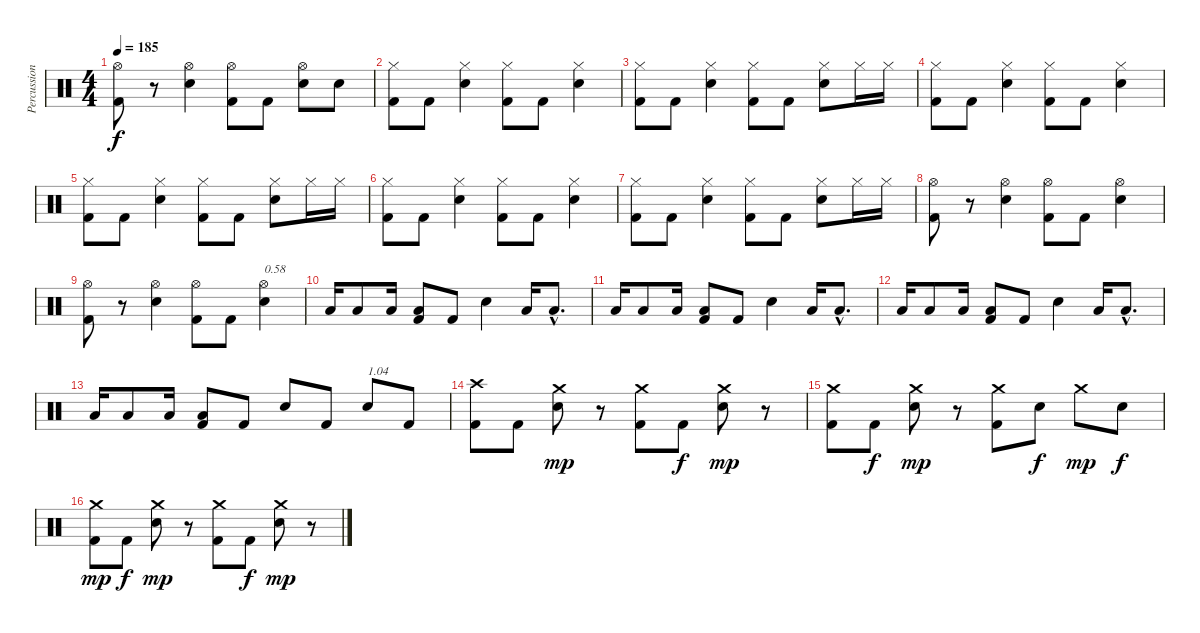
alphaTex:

\track ("Percussions" "Percussion") {instrument percussion}
\staff {score}
\articulation defaults
\ts (4 4)
\tempo 185
\clef neutral
\ks c
("Kick (hit) 2" "Hi-Hat (open)").8{dy f} r.8 ("Electric Snare (hit)" "Hi-Hat (open)").4 ("Kick (hit) 2" "Hi-Hat (open)").8 "Kick (hit) 2".8 ("Electric Snare (hit)" "Hi-Hat (open)").8 "Electric Snare (hit)".8 |
("Kick (hit) 2" "Hi-Hat (closed)").8 "Kick (hit) 2".8 ("Electric Snare (hit)" "Hi-Hat (closed)").4 ("Kick (hit) 2" "Hi-Hat (closed)").8 "Kick (hit) 2".8 ("Electric Snare (hit)" "Hi-Hat (closed)").4 |
("Kick (hit) 2" "Hi-Hat (closed)").8 "Kick (hit) 2".8 ("Electric Snare (hit)" "Hi-Hat (closed)").4 ("Kick (hit) 2" "Hi-Hat (closed)").8 "Kick (hit) 2".8 ("Electric Snare (hit)" "Hi-Hat (closed)").8 "Hi-Hat (closed)".16 "Hi-Hat (closed)".16 |
("Kick (hit) 2" "Hi-Hat (closed)").8 "Kick (hit) 2".8 ("Electric Snare (hit)" "Hi-Hat (closed)").4 ("Kick (hit) 2" "Hi-Hat (closed)").8 "Kick (hit) 2".8 ("Electric Snare (hit)" "Hi-Hat (closed)").4 |
("Kick (hit) 2" "Hi-Hat (closed)").8 "Kick (hit) 2".8 ("Electric Snare (hit)" "Hi-Hat (closed)").4 ("Kick (hit) 2" "Hi-Hat (closed)").8 "Kick (hit) 2".8 ("Electric Snare (hit)" "Hi-Hat (closed)").8 "Hi-Hat (closed)".16 "Hi-Hat (closed)".16 |
("Kick (hit) 2" "Hi-Hat (closed)").8 "Kick (hit) 2".8 ("Electric Snare (hit)" "Hi-Hat (closed)").4 ("Kick (hit) 2" "Hi-Hat (closed)").8 "Kick (hit) 2".8 ("Electric Snare (hit)" "Hi-Hat (closed)").4 |
("Kick (hit) 2" "Hi-Hat (closed)").8 "Kick (hit) 2".8 ("Electric Snare (hit)" "Hi-Hat (closed)").4 ("Kick (hit) 2" "Hi-Hat (closed)").8 "Kick (hit) 2".8 ("Electric Snare (hit)" "Hi-Hat (closed)").8 "Hi-Hat (closed)".16 "Hi-Hat (closed)".16 |
("Kick (hit) 2" "Hi-Hat (open)").8 r.8 ("Electric Snare (hit)" "Hi-Hat (open)").4 ("Kick (hit) 2" "Hi-Hat (open)").8 "Kick (hit) 2".8 ("Electric Snare (hit)" "Hi-Hat (open)").4 |
("Kick (hit) 2" "Hi-Hat (open)").8 r.8 ("Electric Snare (hit)" "Hi-Hat (open)").4 ("Kick (hit) 2" "Hi-Hat (open)").8 "Kick (hit) 2".8 ("Electric Snare (hit)" "Hi-Hat (open)").4{txt "0.58"} |
"Low Floor Tom (hit)".16 "Low Floor Tom (hit)".8 "Low Floor Tom (hit)".16 ("Kick (hit) 2" "Low Floor Tom (hit)").8 "Kick (hit) 2".8 "Electric Snare (hit)".4 "Low Floor Tom (hit)".16 "Low Floor Tom (hit)"{hac}.8{d} |
"Low Floor Tom (hit)".16 "Low Floor Tom (hit)".8 "Low Floor Tom (hit)".16 ("Kick (hit) 2" "Low Floor Tom (hit)").8 "Kick (hit) 2".8 "Electric Snare (hit)".4 "Low Floor Tom (hit)".16 "Low Floor Tom (hit)"{hac}.8{d} |
"Low Floor Tom (hit)".16 "Low Floor Tom (hit)".8 "Low Floor Tom (hit)".16 ("Kick (hit) 2" "Low Floor Tom (hit)").8 "Kick (hit) 2".8 "Electric Snare (hit)".4 "Low Floor Tom (hit)".16 "Low Floor Tom (hit)"{hac}.8{d} |
"Low Floor Tom (hit)".16 "Low Floor Tom (hit)".8 "Low Floor Tom (hit)".16 ("Kick (hit) 2" "Low Floor Tom (hit)").8 "Kick (hit) 2".8 "Electric Snare (hit)".8 "Kick (hit) 2".8 "Electric Snare (hit)".8{txt "1.04"} "Kick (hit) 2".8 |
("Kick (hit) 2" "Crash high (hit)").8 "Kick (hit) 2".8 ("Electric Snare (hit)" "Crash medium (hit)").8{dy mp} r.8 ("Kick (hit) 2" "Crash medium (hit)").8 "Kick (hit) 2".8{dy f} ("Electric Snare (hit)" "Crash medium (hit)").8{dy mp} r.8 |
("Kick (hit) 2" "Crash medium (hit)").8 "Kick (hit) 2".8{dy f} ("Electric Snare (hit)" "Crash medium (hit)").8{dy mp} r.8 ("Kick (hit) 2" "Crash medium (hit)").8 "Electric Snare (hit)".8{dy f} "Crash medium (hit)".8{dy mp} "Electric Snare (hit)".8{dy f} |
("Kick (hit) 2" "Crash medium (hit)").8{dy mp} "Kick (hit) 2".8{dy f} ("Electric Snare (hit)" "Crash medium (hit)").8{dy mp} r.8 ("Kick (hit) 2" "Crash medium (hit)").8 "Kick (hit) 2".8{dy f} ("Electric Snare (hit)" "Crash medium (hit)").8{dy mp} r.8
